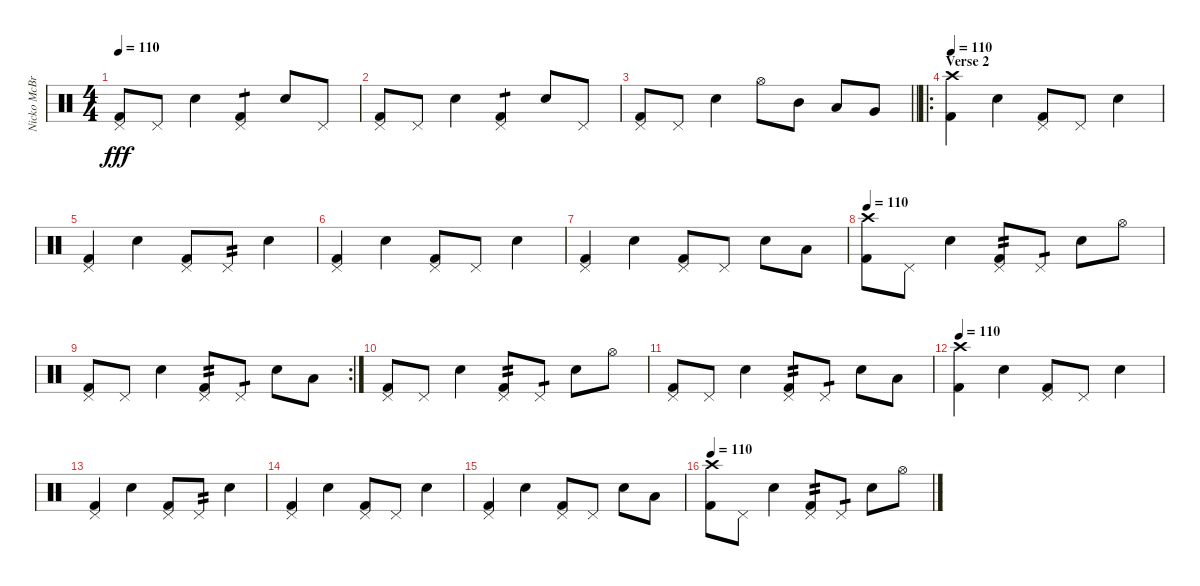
\track ("Nicko McBrain" "Nicko McBr") {instrument percussion}
\staff {score}
\articulation defaults
\ts (4 4)
\tempo 110
\clef neutral
\ks c
("Pedal Hi-Hat (hit)" "Kick (hit) 2").8{dy fff} "Pedal Hi-Hat (hit)".8 "Electric Snare (hit)".4 ("Pedal Hi-Hat (hit)" "Kick (hit) 2").4{tp 1} "Electric Snare (hit)".8 "Pedal Hi-Hat (hit)".8 |
("Pedal Hi-Hat (hit)" "Kick (hit) 2").8 "Pedal Hi-Hat (hit)".8 "Electric Snare (hit)".4 ("Pedal Hi-Hat (hit)" "Kick (hit) 2").4{tp 1} "Electric Snare (hit)".8 "Pedal Hi-Hat (hit)".8 |
\barLineRight lightlight
("Pedal Hi-Hat (hit)" "Kick (hit) 2").8 "Pedal Hi-Hat (hit)".8 "Electric Snare (hit)".4 "Hi-Hat (open)".8 "Mid Tom (hit)".8 "Low Tom (hit)".8 "Very Low Tom (hit)".8 |
\ro
\section ("" "Verse 2")
\tempo 110
("Crash high (hit)" "Kick (hit) 2").4 "Electric Snare (hit)".4 ("Pedal Hi-Hat (hit)" "Kick (hit) 2").8 "Pedal Hi-Hat (hit)".8 "Electric Snare (hit)".4 |
("Pedal Hi-Hat (hit)" "Kick (hit) 2").4 "Electric Snare (hit)".4 ("Pedal Hi-Hat (hit)" "Kick (hit) 2").8 "Pedal Hi-Hat (hit)".8{tp 2} "Electric Snare (hit)".4 |
("Pedal Hi-Hat (hit)" "Kick (hit) 2").4 "Electric Snare (hit)".4 ("Pedal Hi-Hat (hit)" "Kick (hit) 2").8 "Pedal Hi-Hat (hit)".8 "Electric Snare (hit)".4 |
("Pedal Hi-Hat (hit)" "Kick (hit) 2").4 "Electric Snare (hit)".4 ("Pedal Hi-Hat (hit)" "Kick (hit) 2").8 "Pedal Hi-Hat (hit)".8 "Electric Snare (hit)".8 "Low Floor Tom (hit)".8 |
\tempo 110
("Crash high (hit)" "Kick (hit) 2").8 "Pedal Hi-Hat (hit)".8 "Electric Snare (hit)".4 ("Pedal Hi-Hat (hit)" "Kick (hit) 2").8{tp 2} "Pedal Hi-Hat (hit)".8{tp 1} "Electric Snare (hit)".8 "Hi-Hat (open)".8 |
\rc 2
("Pedal Hi-Hat (hit)" "Kick (hit) 2").8 "Pedal Hi-Hat (hit)".8 "Electric Snare (hit)".4 ("Pedal Hi-Hat (hit)" "Kick (hit) 2").8{tp 2} "Pedal Hi-Hat (hit)".8{tp 1} "Electric Snare (hit)".8 "Low Floor Tom (hit)".8 |
("Pedal Hi-Hat (hit)" "Kick (hit) 2").8 "Pedal Hi-Hat (hit)".8 "Electric Snare (hit)".4 ("Pedal Hi-Hat (hit)" "Kick (hit) 2").8{tp 2} "Pedal Hi-Hat (hit)".8{tp 1} "Electric Snare (hit)".8 "Hi-Hat (open)".8 |
("Pedal Hi-Hat (hit)" "Kick (hit) 2").8 "Pedal Hi-Hat (hit)".8 "Electric Snare (hit)".4 ("Pedal Hi-Hat (hit)" "Kick (hit) 2").8{tp 2} "Pedal Hi-Hat (hit)".8{tp 1} "Electric Snare (hit)".8 "Low Floor Tom (hit)".8 |
\tempo 110
("Crash high (hit)" "Kick (hit) 2").4 "Electric Snare (hit)".4 ("Pedal Hi-Hat (hit)" "Kick (hit) 2").8 "Pedal Hi-Hat (hit)".8 "Electric Snare (hit)".4 |
("Pedal Hi-Hat (hit)" "Kick (hit) 2").4 "Electric Snare (hit)".4 ("Pedal Hi-Hat (hit)" "Kick (hit) 2").8 "Pedal Hi-Hat (hit)".8{tp 2} "Electric Snare (hit)".4 |
("Pedal Hi-Hat (hit)" "Kick (hit) 2").4 "Electric Snare (hit)".4 ("Pedal Hi-Hat (hit)" "Kick (hit) 2").8 "Pedal Hi-Hat (hit)".8 "Electric Snare (hit)".4 |
("Pedal Hi-Hat (hit)" "Kick (hit) 2").4 "Electric Snare (hit)".4 ("Pedal Hi-Hat (hit)" "Kick (hit) 2").8 "Pedal Hi-Hat (hit)".8 "Electric Snare (hit)".8 "Low Floor Tom (hit)".8 |
\tempo 110
("Crash high (hit)" "Kick (hit) 2").8 "Pedal Hi-Hat (hit)".8 "Electric Snare (hit)".4 ("Pedal Hi-Hat (hit)" "Kick (hit) 2").8{tp 2} "Pedal Hi-Hat (hit)".8{tp 1} "Electric Snare (hit)".8 "Hi-Hat (open)".8
